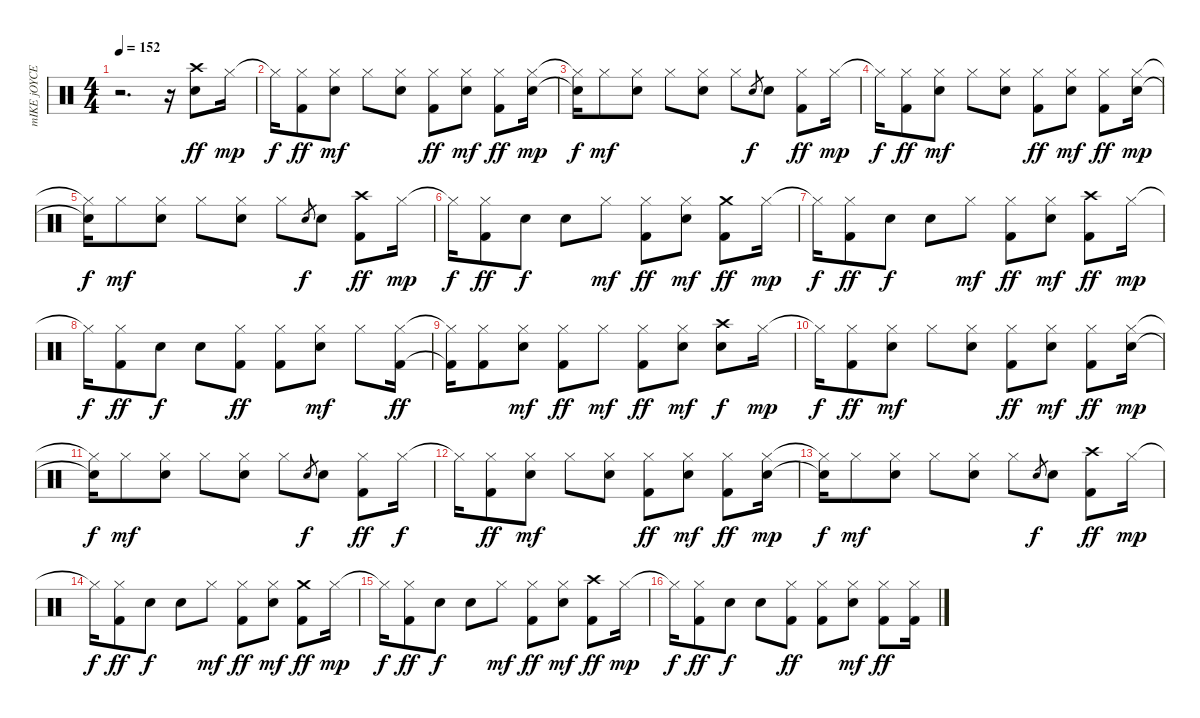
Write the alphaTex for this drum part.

\track ("mIKE jOYCE" "mIKE jOYCE") {instrument percussion}
\staff {score}
\articulation defaults
\ts (4 4)
\tempo 152
\clef neutral
\ks c
r.2{d dy ff} r.16 ("Crash high (hit)" "Electric Snare (hit)").8 "Hi-Hat (closed)".16{dy mp} |
"Hi-Hat (closed)"{t}.16{dy f} ("Hi-Hat (closed)" "Kick (hit) 2").8{dy ff} ("Hi-Hat (closed)" "Electric Snare (hit)").8{dy mf} "Hi-Hat (closed)".8 ("Hi-Hat (closed)" "Electric Snare (hit)").8 ("Hi-Hat (closed)" "Kick (hit) 2").8{dy ff} ("Hi-Hat (closed)" "Electric Snare (hit)").8{dy mf} ("Hi-Hat (closed)" "Kick (hit) 2").8{dy ff} ("Hi-Hat (closed)" "Electric Snare (hit)").16{dy mp} |
("Hi-Hat (closed)"{t} "Electric Snare (hit)"{t}).16{dy f} "Hi-Hat (closed)".8{dy mf} ("Hi-Hat (closed)" "Electric Snare (hit)").8 "Hi-Hat (closed)".8 ("Hi-Hat (closed)" "Electric Snare (hit)").8 "Hi-Hat (closed)".8 "Electric Snare (hit)".8{gr dy f} "Electric Snare (hit)".8 ("Hi-Hat (closed)" "Kick (hit) 2").8{dy ff} "Hi-Hat (closed)".16{dy mp} |
"Hi-Hat (closed)"{t}.16{dy f} ("Hi-Hat (closed)" "Kick (hit) 2").8{dy ff} ("Hi-Hat (closed)" "Electric Snare (hit)").8{dy mf} "Hi-Hat (closed)".8 ("Hi-Hat (closed)" "Electric Snare (hit)").8 ("Hi-Hat (closed)" "Kick (hit) 2").8{dy ff} ("Hi-Hat (closed)" "Electric Snare (hit)").8{dy mf} ("Hi-Hat (closed)" "Kick (hit) 2").8{dy ff} ("Hi-Hat (closed)" "Electric Snare (hit)").16{dy mp} |
("Hi-Hat (closed)"{t} "Electric Snare (hit)"{t}).16{dy f} "Hi-Hat (closed)".8{dy mf} ("Hi-Hat (closed)" "Electric Snare (hit)").8 "Hi-Hat (closed)".8 ("Hi-Hat (closed)" "Electric Snare (hit)").8 "Hi-Hat (closed)".8 "Electric Snare (hit)".8{gr dy f} "Electric Snare (hit)".8 ("Crash high (hit)" "Kick (hit) 2").8{dy ff} "Hi-Hat (closed)".16{dy mp} |
"Hi-Hat (closed)"{t}.16{dy f} ("Hi-Hat (closed)" "Kick (hit) 2").8{dy ff} "Electric Snare (hit)".8{dy f} "Electric Snare (hit)".8 "Hi-Hat (closed)".8{dy mf} ("Hi-Hat (closed)" "Kick (hit) 2").8{dy ff} ("Hi-Hat (closed)" "Electric Snare (hit)").8{dy mf} ("Crash medium (hit)" "Kick (hit) 2").8{dy ff} "Hi-Hat (closed)".16{dy mp} |
"Hi-Hat (closed)"{t}.16{dy f} ("Hi-Hat (closed)" "Kick (hit) 2").8{dy ff} "Electric Snare (hit)".8{dy f} "Electric Snare (hit)".8 "Hi-Hat (closed)".8{dy mf} ("Hi-Hat (closed)" "Kick (hit) 2").8{dy ff} ("Hi-Hat (closed)" "Electric Snare (hit)").8{dy mf} ("Crash high (hit)" "Kick (hit) 2").8{dy ff} "Hi-Hat (closed)".16{dy mp} |
"Hi-Hat (closed)"{t}.16{dy f} ("Hi-Hat (closed)" "Kick (hit) 2").8{dy ff} "Electric Snare (hit)".8{dy f} "Electric Snare (hit)".8 ("Hi-Hat (closed)" "Kick (hit) 2").8{dy ff} ("Hi-Hat (closed)" "Kick (hit) 2").8 ("Hi-Hat (closed)" "Electric Snare (hit)").8{dy mf} "Hi-Hat (closed)".8 ("Hi-Hat (closed)" "Kick (hit) 2").16{dy ff} |
("Hi-Hat (closed)"{t} "Kick (hit) 2"{t}).16 ("Hi-Hat (closed)" "Kick (hit) 2").8 ("Hi-Hat (closed)" "Electric Snare (hit)").8{dy mf} ("Hi-Hat (closed)" "Kick (hit) 2").8{dy ff} "Hi-Hat (closed)".8{dy mf} ("Hi-Hat (closed)" "Kick (hit) 2").8{dy ff} ("Hi-Hat (closed)" "Electric Snare (hit)").8{dy mf} ("Crash high (hit)" "Electric Snare (hit)").8{dy f} "Hi-Hat (closed)".16{dy mp} |
"Hi-Hat (closed)"{t}.16{dy f} ("Hi-Hat (closed)" "Kick (hit) 2").8{dy ff} ("Hi-Hat (closed)" "Electric Snare (hit)").8{dy mf} "Hi-Hat (closed)".8 ("Hi-Hat (closed)" "Electric Snare (hit)").8 ("Hi-Hat (closed)" "Kick (hit) 2").8{dy ff} ("Hi-Hat (closed)" "Electric Snare (hit)").8{dy mf} ("Hi-Hat (closed)" "Kick (hit) 2").8{dy ff} ("Hi-Hat (closed)" "Electric Snare (hit)").16{dy mp} |
("Hi-Hat (closed)"{t} "Electric Snare (hit)"{t}).16{dy f} "Hi-Hat (closed)".8{dy mf} ("Hi-Hat (closed)" "Electric Snare (hit)").8 "Hi-Hat (closed)".8 ("Hi-Hat (closed)" "Electric Snare (hit)").8 "Hi-Hat (closed)".8 "Electric Snare (hit)".8{gr dy f} "Electric Snare (hit)".8 ("Hi-Hat (closed)" "Kick (hit) 2").8{dy ff} "Hi-Hat (closed)".16{dy f} |
"Hi-Hat (closed)"{t}.16 ("Hi-Hat (closed)" "Kick (hit) 2").8{dy ff} ("Hi-Hat (closed)" "Electric Snare (hit)").8{dy mf} "Hi-Hat (closed)".8 ("Hi-Hat (closed)" "Electric Snare (hit)").8 ("Hi-Hat (closed)" "Kick (hit) 2").8{dy ff} ("Hi-Hat (closed)" "Electric Snare (hit)").8{dy mf} ("Hi-Hat (closed)" "Kick (hit) 2").8{dy ff} ("Hi-Hat (closed)" "Electric Snare (hit)").16{dy mp} |
("Hi-Hat (closed)"{t} "Electric Snare (hit)"{t}).16{dy f} "Hi-Hat (closed)".8{dy mf} ("Hi-Hat (closed)" "Electric Snare (hit)").8 "Hi-Hat (closed)".8 ("Hi-Hat (closed)" "Electric Snare (hit)").8 "Hi-Hat (closed)".8 "Electric Snare (hit)".8{gr dy f} "Electric Snare (hit)".8 ("Crash high (hit)" "Kick (hit) 2").8{dy ff} "Hi-Hat (closed)".16{dy mp} |
"Hi-Hat (closed)"{t}.16{dy f} ("Hi-Hat (closed)" "Kick (hit) 2").8{dy ff} "Electric Snare (hit)".8{dy f} "Electric Snare (hit)".8 "Hi-Hat (closed)".8{dy mf} ("Hi-Hat (closed)" "Kick (hit) 2").8{dy ff} ("Hi-Hat (closed)" "Electric Snare (hit)").8{dy mf} ("Crash medium (hit)" "Kick (hit) 2").8{dy ff} "Hi-Hat (closed)".16{dy mp} |
"Hi-Hat (closed)"{t}.16{dy f} ("Hi-Hat (closed)" "Kick (hit) 2").8{dy ff} "Electric Snare (hit)".8{dy f} "Electric Snare (hit)".8 "Hi-Hat (closed)".8{dy mf} ("Hi-Hat (closed)" "Kick (hit) 2").8{dy ff} ("Hi-Hat (closed)" "Electric Snare (hit)").8{dy mf} ("Crash high (hit)" "Kick (hit) 2").8{dy ff} "Hi-Hat (closed)".16{dy mp} |
"Hi-Hat (closed)"{t}.16{dy f} ("Hi-Hat (closed)" "Kick (hit) 2").8{dy ff} "Electric Snare (hit)".8{dy f} "Electric Snare (hit)".8 ("Hi-Hat (closed)" "Kick (hit) 2").8{dy ff} ("Hi-Hat (closed)" "Kick (hit) 2").8 ("Hi-Hat (closed)" "Electric Snare (hit)").8{dy mf} ("Hi-Hat (closed)" "Kick (hit) 2").8{dy ff} ("Hi-Hat (closed)" "Kick (hit) 2").16
